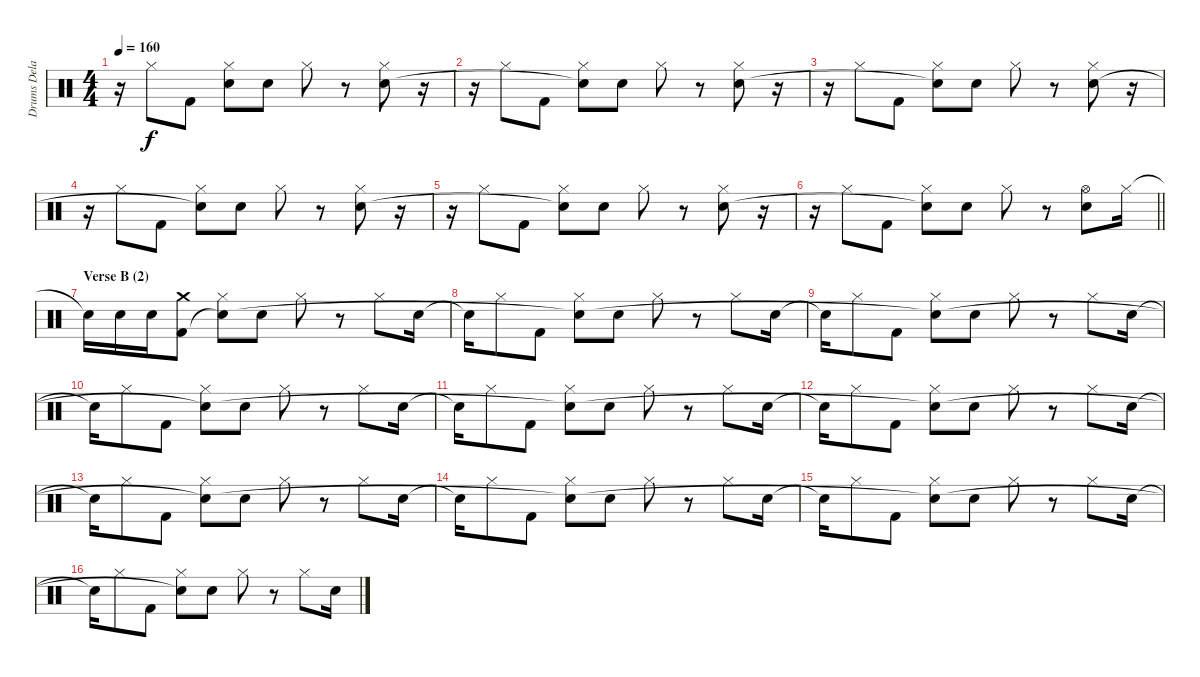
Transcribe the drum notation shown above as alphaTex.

\track ("Drums Delay 2" "Drums Dela") {instrument percussion}
\staff {score}
\articulation defaults
\ts (4 4)
\tempo 160
\clef neutral
\ks c
r.16{dy f} "Hi-Hat (closed)".8 "Kick (hit) 2".8 ("Hi-Hat (closed)" "Snare (hit)"{t}).8 "Electric Snare (hit)".8 "Hi-Hat (closed)".8 r.8 ("Hi-Hat (closed)" "Electric Snare (hit)").8 r.16 |
r.16 "Hi-Hat (closed)".8 "Kick (hit) 2".8 ("Hi-Hat (closed)" "Snare (hit)"{t}).8 "Electric Snare (hit)".8 "Hi-Hat (closed)".8 r.8 ("Hi-Hat (closed)" "Electric Snare (hit)").8 r.16 |
r.16 "Hi-Hat (closed)".8 "Kick (hit) 2".8 ("Hi-Hat (closed)" "Snare (hit)"{t}).8 "Electric Snare (hit)".8 "Hi-Hat (closed)".8 r.8 ("Hi-Hat (closed)" "Electric Snare (hit)").8 r.16 |
r.16 "Hi-Hat (closed)".8 "Kick (hit) 2".8 ("Hi-Hat (closed)" "Snare (hit)"{t}).8 "Electric Snare (hit)".8 "Hi-Hat (closed)".8 r.8 ("Hi-Hat (closed)" "Electric Snare (hit)").8 r.16 |
r.16 "Hi-Hat (closed)".8 "Kick (hit) 2".8 ("Hi-Hat (closed)" "Snare (hit)"{t}).8 "Electric Snare (hit)".8 "Hi-Hat (closed)".8 r.8 ("Hi-Hat (closed)" "Electric Snare (hit)").8 r.16 |
\barLineRight lightlight
r.16 "Hi-Hat (closed)".8 "Kick (hit) 2".8 ("Hi-Hat (closed)" "Snare (hit)"{t}).8 "Electric Snare (hit)".8 "Hi-Hat (closed)".8 r.8 ("Hi-Hat (open)" "Electric Snare (hit)").8 "Hi-Hat (closed)".16 |
\section ("" "Verse B (2)")
"Snare (hit)"{t}.16 "Electric Snare (hit)".16 "Electric Snare (hit)".16 ("Crash medium (hit)" "Kick (hit) 2").8 ("Hi-Hat (closed)" "Snare (hit)"{t}).8 "Electric Snare (hit)".8 "Hi-Hat (closed)".8 r.8 "Hi-Hat (closed)".8 "Electric Snare (hit)".16 |
"Snare (hit)"{t}.16 "Hi-Hat (closed)".8 "Kick (hit) 2".8 ("Hi-Hat (closed)" "Snare (hit)"{t}).8 "Electric Snare (hit)".8 "Hi-Hat (closed)".8 r.8 "Hi-Hat (closed)".8 "Electric Snare (hit)".16 |
"Snare (hit)"{t}.16 "Hi-Hat (closed)".8 "Kick (hit) 2".8 ("Hi-Hat (closed)" "Snare (hit)"{t}).8 "Electric Snare (hit)".8 "Hi-Hat (closed)".8 r.8 "Hi-Hat (closed)".8 "Electric Snare (hit)".16 |
"Snare (hit)"{t}.16 "Hi-Hat (closed)".8 "Kick (hit) 2".8 ("Hi-Hat (closed)" "Snare (hit)"{t}).8 "Electric Snare (hit)".8 "Hi-Hat (closed)".8 r.8 "Hi-Hat (closed)".8 "Electric Snare (hit)".16 |
"Snare (hit)"{t}.16 "Hi-Hat (closed)".8 "Kick (hit) 2".8 ("Hi-Hat (closed)" "Snare (hit)"{t}).8 "Electric Snare (hit)".8 "Hi-Hat (closed)".8 r.8 "Hi-Hat (closed)".8 "Electric Snare (hit)".16 |
"Snare (hit)"{t}.16 "Hi-Hat (closed)".8 "Kick (hit) 2".8 ("Hi-Hat (closed)" "Snare (hit)"{t}).8 "Electric Snare (hit)".8 "Hi-Hat (closed)".8 r.8 "Hi-Hat (closed)".8 "Electric Snare (hit)".16 |
"Snare (hit)"{t}.16 "Hi-Hat (closed)".8 "Kick (hit) 2".8 ("Hi-Hat (closed)" "Snare (hit)"{t}).8 "Electric Snare (hit)".8 "Hi-Hat (closed)".8 r.8 "Hi-Hat (closed)".8 "Electric Snare (hit)".16 |
"Snare (hit)"{t}.16 "Hi-Hat (closed)".8 "Kick (hit) 2".8 ("Hi-Hat (closed)" "Snare (hit)"{t}).8 "Electric Snare (hit)".8 "Hi-Hat (closed)".8 r.8 "Hi-Hat (closed)".8 "Electric Snare (hit)".16 |
"Snare (hit)"{t}.16 "Hi-Hat (closed)".8 "Kick (hit) 2".8 ("Hi-Hat (closed)" "Snare (hit)"{t}).8 "Electric Snare (hit)".8 "Hi-Hat (closed)".8 r.8 "Hi-Hat (closed)".8 "Electric Snare (hit)".16 |
"Snare (hit)"{t}.16 "Hi-Hat (closed)".8 "Kick (hit) 2".8 ("Hi-Hat (closed)" "Snare (hit)"{t}).8 "Electric Snare (hit)".8 "Hi-Hat (closed)".8 r.8 "Hi-Hat (closed)".8 "Electric Snare (hit)".16
